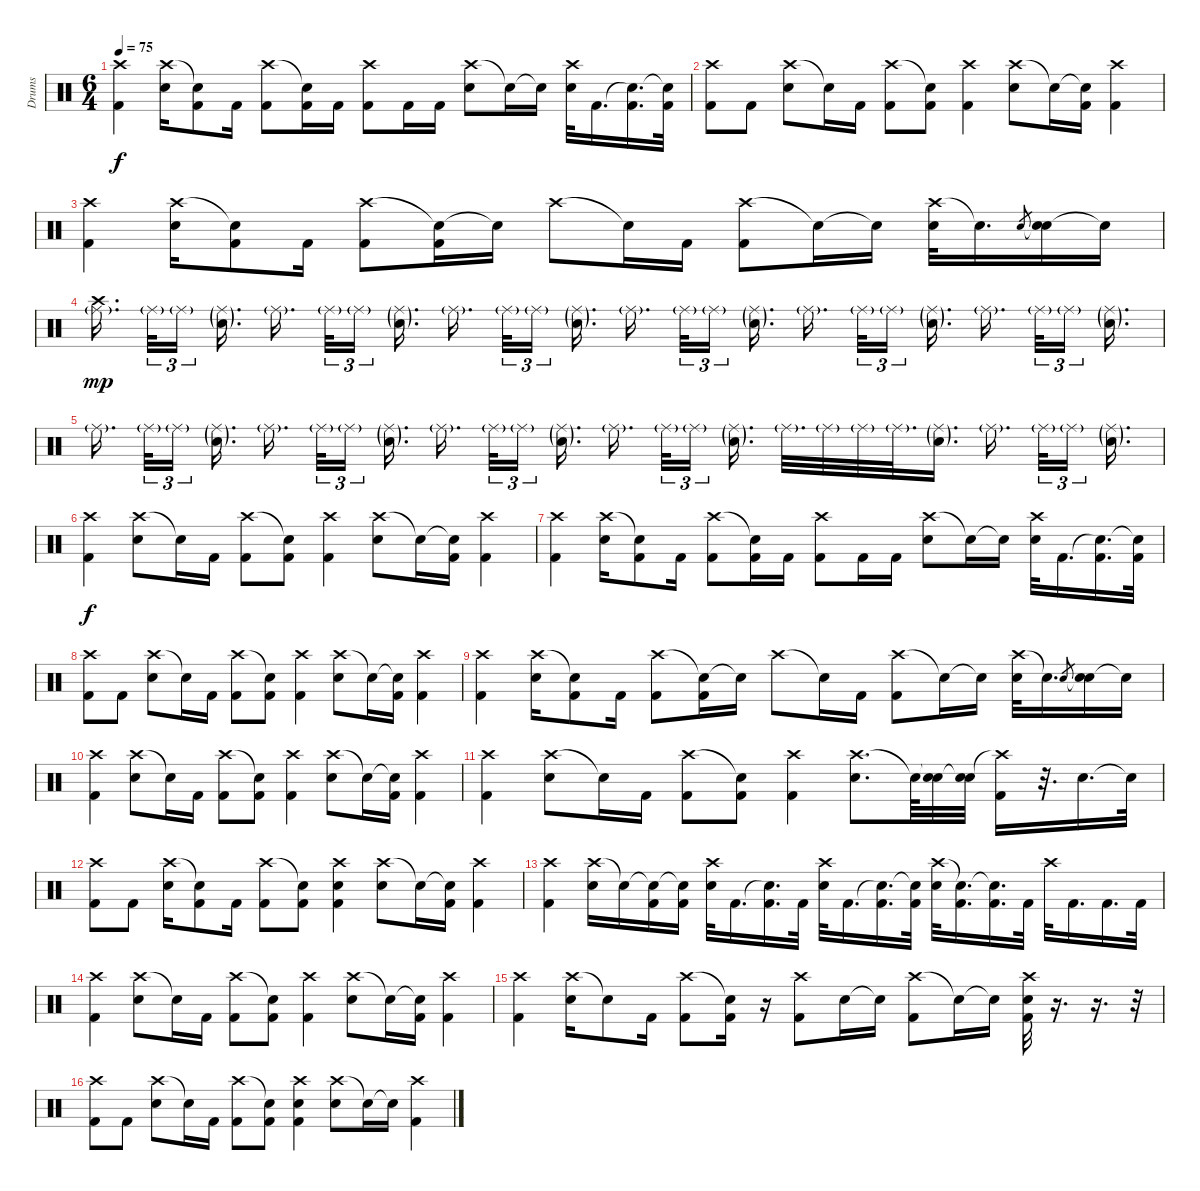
\track ("Drums" "Drums") {instrument percussion}
\staff {score}
\articulation defaults
\ts (6 4)
\tempo 75
\clef neutral
\ks c
("Crash high (hit)" "Kick (hit) 2").4{dy f} ("Crash high (hit)" "Snare (hit) 2").16 ("Snare (hit)"{t} "Kick (hit) 2").8 "Kick (hit) 2".16 ("Crash high (hit)" "Kick (hit) 2").8 ("Snare (hit)"{t} "Kick (hit) 2").16 "Kick (hit) 2".16 ("Crash high (hit)" "Kick (hit) 2").8 "Kick (hit) 2".16 "Kick (hit) 2".16 ("Crash high (hit)" "Snare (hit) 2").8 "Snare (hit)"{t}.16 "Snare (hit)"{t}.16 ("Crash high (hit)" "Snare (hit) 2").32 "Kick (hit) 2".16{d} ("Snare (hit)"{t} "Kick (hit) 2").16{d} ("Snare (hit)"{t} "Kick (hit) 2").32 |
("Crash high (hit)" "Kick (hit) 2").8 "Kick (hit) 2".8 ("Crash high (hit)" "Snare (hit) 2").8 "Snare (hit)"{t}.16 "Kick (hit) 2".16 ("Crash high (hit)" "Kick (hit) 2").8 ("Snare (hit)"{t} "Kick (hit) 2").8 ("Crash high (hit)" "Kick (hit) 2").4 ("Crash high (hit)" "Snare (hit) 2").8 "Snare (hit)"{t}.16 ("Snare (hit)"{t} "Kick (hit) 2").16 ("Crash high (hit)" "Kick (hit) 2").4 |
("Crash high (hit)" "Kick (hit) 2").4 ("Crash high (hit)" "Snare (hit) 2").16 ("Snare (hit)"{t} "Kick (hit) 2").8 "Kick (hit) 2".16 ("Crash high (hit)" "Kick (hit) 2").8 ("Snare (hit)"{t} "Kick (hit) 2").16 "Snare (hit)"{t}.16 "Crash high (hit)".8 "Snare (hit)"{t}.16 "Kick (hit) 2".16 ("Crash high (hit)" "Kick (hit) 2").8 "Snare (hit)"{t}.16 "Snare (hit)"{t}.16 ("Crash high (hit)" "Snare (hit) 2").32 "Snare (hit)"{t}.16{d} "Snare (hit) 2".8{gr} ("Snare (hit)"{t} "Snare (hit) 2").16 "Snare (hit)"{t}.16 |
("Crash high (hit)" "Ride (middle)"{g}).16{d dy mp volume 15 beam splitsecondary} "Ride (middle)"{g}.32{tu (3 2)} "Ride (middle)"{g}.16{tu (3 2) beam splitsecondary} ("Ride (middle)"{g} "Snare (hit) 2"{g}).16{d} "Ride (middle)"{g}.16{d beam splitsecondary} "Ride (middle)"{g}.32{tu (3 2)} "Ride (middle)"{g}.16{tu (3 2) beam splitsecondary} ("Ride (middle)"{g} "Snare (hit) 2"{g}).16{d} "Ride (middle)"{g}.16{d beam splitsecondary} "Ride (middle)"{g}.32{tu (3 2)} "Ride (middle)"{g}.16{tu (3 2) beam splitsecondary} ("Ride (middle)"{g} "Snare (hit) 2"{g}).16{d} "Ride (middle)"{g}.16{d beam splitsecondary} "Ride (middle)"{g}.32{tu (3 2)} "Ride (middle)"{g}.16{tu (3 2) beam splitsecondary} ("Ride (middle)"{g} "Snare (hit) 2"{g}).16{d} "Ride (middle)"{g}.16{d beam splitsecondary} "Ride (middle)"{g}.32{tu (3 2)} "Ride (middle)"{g}.16{tu (3 2) beam splitsecondary} ("Ride (middle)"{g} "Snare (hit) 2"{g}).16{d} "Ride (middle)"{g}.16{d beam splitsecondary} "Ride (middle)"{g}.32{tu (3 2)} "Ride (middle)"{g}.16{tu (3 2) beam splitsecondary} ("Ride (middle)"{g} "Snare (hit) 2"{g}).16{d} |
"Ride (middle)"{g}.16{d beam splitsecondary} "Ride (middle)"{g}.32{tu (3 2)} "Ride (middle)"{g}.16{tu (3 2) beam splitsecondary} ("Ride (middle)"{g} "Snare (hit) 2"{g}).16{d} "Ride (middle)"{g}.16{d beam splitsecondary} "Ride (middle)"{g}.32{tu (3 2)} "Ride (middle)"{g}.16{tu (3 2) beam splitsecondary} ("Ride (middle)"{g} "Snare (hit) 2"{g}).16{d} "Ride (middle)"{g}.16{d beam splitsecondary} "Ride (middle)"{g}.32{tu (3 2)} "Ride (middle)"{g}.16{tu (3 2) beam splitsecondary} ("Ride (middle)"{g} "Snare (hit) 2"{g}).16{d} "Ride (middle)"{g}.16{d beam splitsecondary} "Ride (middle)"{g}.32{tu (3 2)} "Ride (middle)"{g}.16{tu (3 2) beam splitsecondary} ("Ride (middle)"{g} "Snare (hit) 2"{g}).16{d} "Ride (middle)"{g}.32{d} "Ride (middle)"{g}.32 "Ride (middle)"{g}.32 "Ride (middle)"{g}.32{d} ("Ride (middle)"{g} "Snare (hit) 2"{g}).16{d} "Ride (middle)"{g}.16{d beam splitsecondary} "Ride (middle)"{g}.32{tu (3 2)} "Ride (middle)"{g}.16{tu (3 2) beam splitsecondary} ("Ride (middle)"{g} "Snare (hit) 2"{g}).16{d} |
("Crash high (hit)" "Kick (hit) 2").4{dy f volume 14} ("Crash high (hit)" "Snare (hit) 2").8 "Snare (hit)"{t}.16 "Kick (hit) 2".16 ("Crash high (hit)" "Kick (hit) 2").8 ("Snare (hit)"{t} "Kick (hit) 2").8 ("Crash high (hit)" "Kick (hit) 2").4 ("Crash high (hit)" "Snare (hit) 2").8 "Snare (hit)"{t}.16 ("Snare (hit)"{t} "Kick (hit) 2").16 ("Crash high (hit)" "Kick (hit) 2").4 |
("Crash high (hit)" "Kick (hit) 2").4 ("Crash high (hit)" "Snare (hit) 2").16 ("Snare (hit)"{t} "Kick (hit) 2").8 "Kick (hit) 2".16 ("Crash high (hit)" "Kick (hit) 2").8 ("Snare (hit)"{t} "Kick (hit) 2").16 "Kick (hit) 2".16 ("Crash high (hit)" "Kick (hit) 2").8 "Kick (hit) 2".16 "Kick (hit) 2".16 ("Crash high (hit)" "Snare (hit) 2").8 "Snare (hit)"{t}.16 "Snare (hit)"{t}.16 ("Crash high (hit)" "Snare (hit) 2").32 "Kick (hit) 2".16{d} ("Snare (hit)"{t} "Kick (hit) 2").16{d} ("Snare (hit)"{t} "Kick (hit) 2").32 |
("Crash high (hit)" "Kick (hit) 2").8 "Kick (hit) 2".8 ("Crash high (hit)" "Snare (hit) 2").8 "Snare (hit)"{t}.16 "Kick (hit) 2".16 ("Crash high (hit)" "Kick (hit) 2").8 ("Snare (hit)"{t} "Kick (hit) 2").8 ("Crash high (hit)" "Kick (hit) 2").4 ("Crash high (hit)" "Snare (hit) 2").8 "Snare (hit)"{t}.16 ("Snare (hit)"{t} "Kick (hit) 2").16 ("Crash high (hit)" "Kick (hit) 2").4 |
("Crash high (hit)" "Kick (hit) 2").4 ("Crash high (hit)" "Snare (hit) 2").16 ("Snare (hit)"{t} "Kick (hit) 2").8 "Kick (hit) 2".16 ("Crash high (hit)" "Kick (hit) 2").8 ("Snare (hit)"{t} "Kick (hit) 2").16 "Snare (hit)"{t}.16 "Crash high (hit)".8 "Snare (hit)"{t}.16 "Kick (hit) 2".16 ("Crash high (hit)" "Kick (hit) 2").8 "Snare (hit)"{t}.16 "Snare (hit)"{t}.16 ("Crash high (hit)" "Snare (hit) 2").32 "Snare (hit)"{t}.16{d} "Snare (hit) 2".8{gr} ("Snare (hit)"{t} "Snare (hit) 2").16 "Snare (hit)"{t}.16 |
("Crash high (hit)" "Kick (hit) 2").4 ("Crash high (hit)" "Snare (hit) 2").8 "Snare (hit)"{t}.16 "Kick (hit) 2".16 ("Crash high (hit)" "Kick (hit) 2").8 ("Snare (hit)"{t} "Kick (hit) 2").8 ("Crash high (hit)" "Kick (hit) 2").4 ("Crash high (hit)" "Snare (hit) 2").8 "Snare (hit)"{t}.16 ("Snare (hit)"{t} "Kick (hit) 2").16 ("Crash high (hit)" "Kick (hit) 2").4 |
("Crash high (hit)" "Kick (hit) 2").4 ("Crash high (hit)" "Snare (hit) 2").8 "Snare (hit)"{t}.16 "Kick (hit) 2".16 ("Crash high (hit)" "Kick (hit) 2").8 ("Snare (hit)"{t} "Kick (hit) 2").8 ("Crash high (hit)" "Kick (hit) 2").4 ("Crash high (hit)" "Snare (hit) 2").8{d} "Snare (hit)"{t}.64 ("Snare (hit)"{t} "Snare (hit) 2").32 ("Snare (hit)"{t} "Snare (hit) 2").32 ("Crash high (hit)"{t} "Kick (hit) 2").16 r.32{d} "Snare (hit) 2".16{d} "Snare (hit)"{t}.32 |
("Crash high (hit)" "Kick (hit) 2").8 "Kick (hit) 2".8 ("Crash high (hit)" "Snare (hit) 2").16 ("Snare (hit)"{t} "Kick (hit) 2").8 "Kick (hit) 2".16 ("Crash high (hit)" "Kick (hit) 2").8 ("Snare (hit)"{t} "Kick (hit) 2").8 ("Crash high (hit)" "Snare (hit) 2" "Kick (hit) 2").4 ("Crash high (hit)" "Snare (hit) 2").8 "Snare (hit)"{t}.16 ("Snare (hit)"{t} "Kick (hit) 2").16 ("Crash high (hit)" "Kick (hit) 2").4 |
("Crash high (hit)" "Kick (hit) 2").4 ("Crash high (hit)" "Snare (hit) 2").16 "Snare (hit)"{t}.16 ("Snare (hit)"{t} "Kick (hit) 2").16 ("Snare (hit)"{t} "Kick (hit) 2").16 ("Crash high (hit)" "Snare (hit) 2").32 "Kick (hit) 2".16{d} ("Snare (hit)"{t} "Kick (hit) 2").16{d} "Kick (hit) 2".32 ("Crash high (hit)" "Snare (hit) 2").32 "Kick (hit) 2".16{d} ("Snare (hit)"{t} "Kick (hit) 2").16{d} ("Snare (hit)"{t} "Kick (hit) 2").32 ("Crash high (hit)" "Snare (hit) 2").32 ("Snare (hit)"{t} "Kick (hit) 2").16{d} ("Snare (hit)"{t} "Kick (hit) 2").16{d} "Kick (hit) 2".32 "Crash high (hit)".32 "Kick (hit) 2".16{d} "Kick (hit) 2".16{d} "Kick (hit) 2".32 |
("Crash high (hit)" "Kick (hit) 2").4 ("Crash high (hit)" "Snare (hit) 2").8 "Snare (hit)"{t}.16 "Kick (hit) 2".16 ("Crash high (hit)" "Kick (hit) 2").8 ("Snare (hit)"{t} "Kick (hit) 2").8 ("Crash high (hit)" "Kick (hit) 2").4 ("Crash high (hit)" "Snare (hit) 2").8 "Snare (hit)"{t}.16 ("Snare (hit)"{t} "Kick (hit) 2").16 ("Crash high (hit)" "Kick (hit) 2").4 |
("Crash high (hit)" "Kick (hit) 2").4 ("Crash high (hit)" "Snare (hit) 2").16 "Snare (hit)"{t}.8 "Kick (hit) 2".16 ("Crash high (hit)" "Kick (hit) 2").8 ("Snare (hit)"{t} "Kick (hit) 2").16 r.16 ("Crash high (hit)" "Kick (hit) 2").8 "Snare (hit) 2".16 "Snare (hit)"{t}.16 ("Crash high (hit)" "Kick (hit) 2").8 "Snare (hit)"{t}.16 "Snare (hit)"{t}.16 ("Crash high (hit)" "Snare (hit) 2" "Kick (hit) 2").32 r.16{d} r.16{d} r.32 |
("Crash high (hit)" "Kick (hit) 2").8 "Kick (hit) 2".8 ("Crash high (hit)" "Snare (hit) 2").8 "Snare (hit)"{t}.16 "Kick (hit) 2".16 ("Crash high (hit)" "Kick (hit) 2").8 ("Snare (hit)"{t} "Kick (hit) 2").8 ("Crash high (hit)" "Snare (hit) 2" "Kick (hit) 2").4 ("Crash high (hit)" "Snare (hit) 2").8 "Snare (hit)"{t}.16 "Snare (hit)"{t}.16 ("Crash high (hit)" "Kick (hit) 2").4
